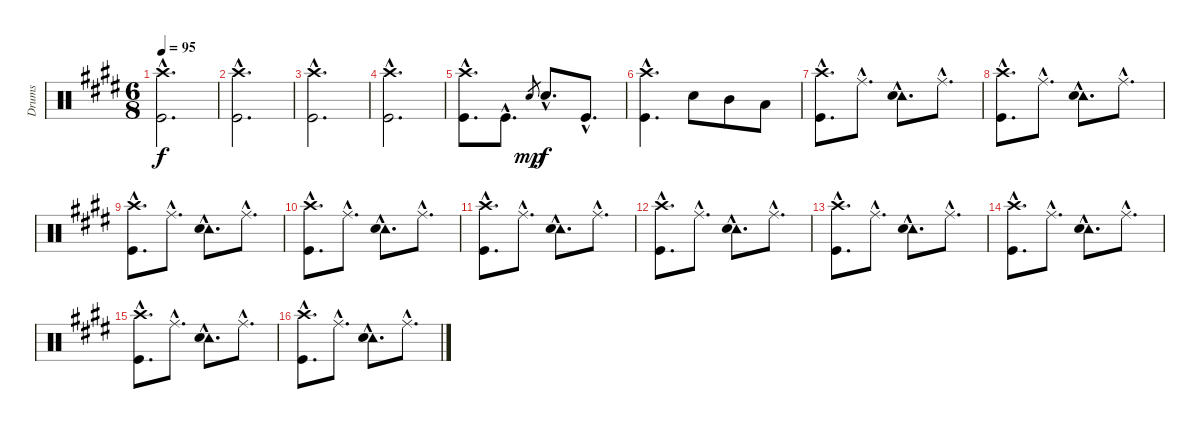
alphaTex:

\track ("Drums" "Drums") {instrument percussion}
\staff {score}
\articulation defaults
\ts (6 8)
\tempo 95
\clef neutral
\ks e
("Crash high (hit)"{hac} "Kick (hit)"{hac}).2{d dy f} |
("Crash high (hit)"{hac} "Kick (hit)"{hac}).2{d} |
("Crash high (hit)"{hac} "Kick (hit)"{hac}).2{d} |
("Crash high (hit)"{hac} "Kick (hit)"{hac}).2{d} |
("Crash high (hit)"{hac} "Kick (hit)"{hac}).8{d} "Kick (hit)"{hac}.8{d} "Electric Snare (hit)".8{gr dy mp} "Electric Snare (hit)"{hac}.8{d dy f} "Kick (hit)"{hac}.8{d} |
("Crash high (hit)"{hac} "Kick (hit)"{hac}).4{d} "Electric Snare (hit)".8 "Mid Tom (hit)".8 "Low Tom (hit)".8 |
("Crash high (hit)"{hac} "Kick (hit)"{hac}).8{d} "Ride (middle)"{hac}.8{d} ("Tambourine (hit)"{hac} "Electric Snare (hit)"{hac}).8{d} "Ride (middle)"{hac}.8{d} |
("Crash high (hit)"{hac} "Kick (hit)"{hac}).8{d} "Ride (middle)"{hac}.8{d} ("Tambourine (hit)"{hac} "Electric Snare (hit)"{hac}).8{d} "Ride (middle)"{hac}.8{d} |
("Crash high (hit)"{hac} "Kick (hit)"{hac}).8{d} "Ride (middle)"{hac}.8{d} ("Tambourine (hit)"{hac} "Electric Snare (hit)"{hac}).8{d} "Ride (middle)"{hac}.8{d} |
("Crash high (hit)"{hac} "Kick (hit)"{hac}).8{d} "Ride (middle)"{hac}.8{d} ("Tambourine (hit)"{hac} "Electric Snare (hit)"{hac}).8{d} "Ride (middle)"{hac}.8{d} |
("Crash high (hit)"{hac} "Kick (hit)"{hac}).8{d} "Ride (middle)"{hac}.8{d} ("Tambourine (hit)"{hac} "Electric Snare (hit)"{hac}).8{d} "Ride (middle)"{hac}.8{d} |
("Crash high (hit)"{hac} "Kick (hit)"{hac}).8{d} "Ride (middle)"{hac}.8{d} ("Tambourine (hit)"{hac} "Electric Snare (hit)"{hac}).8{d} "Ride (middle)"{hac}.8{d} |
("Crash high (hit)"{hac} "Kick (hit)"{hac}).8{d} "Ride (middle)"{hac}.8{d} ("Tambourine (hit)"{hac} "Electric Snare (hit)"{hac}).8{d} "Ride (middle)"{hac}.8{d} |
("Crash high (hit)"{hac} "Kick (hit)"{hac}).8{d} "Ride (middle)"{hac}.8{d} ("Tambourine (hit)"{hac} "Electric Snare (hit)"{hac}).8{d} "Ride (middle)"{hac}.8{d} |
("Crash high (hit)"{hac} "Kick (hit)"{hac}).8{d} "Ride (middle)"{hac}.8{d} ("Tambourine (hit)"{hac} "Electric Snare (hit)"{hac}).8{d} "Ride (middle)"{hac}.8{d} |
("Crash high (hit)"{hac} "Kick (hit)"{hac}).8{d} "Ride (middle)"{hac}.8{d} ("Tambourine (hit)"{hac} "Electric Snare (hit)"{hac}).8{d} "Ride (middle)"{hac}.8{d}
